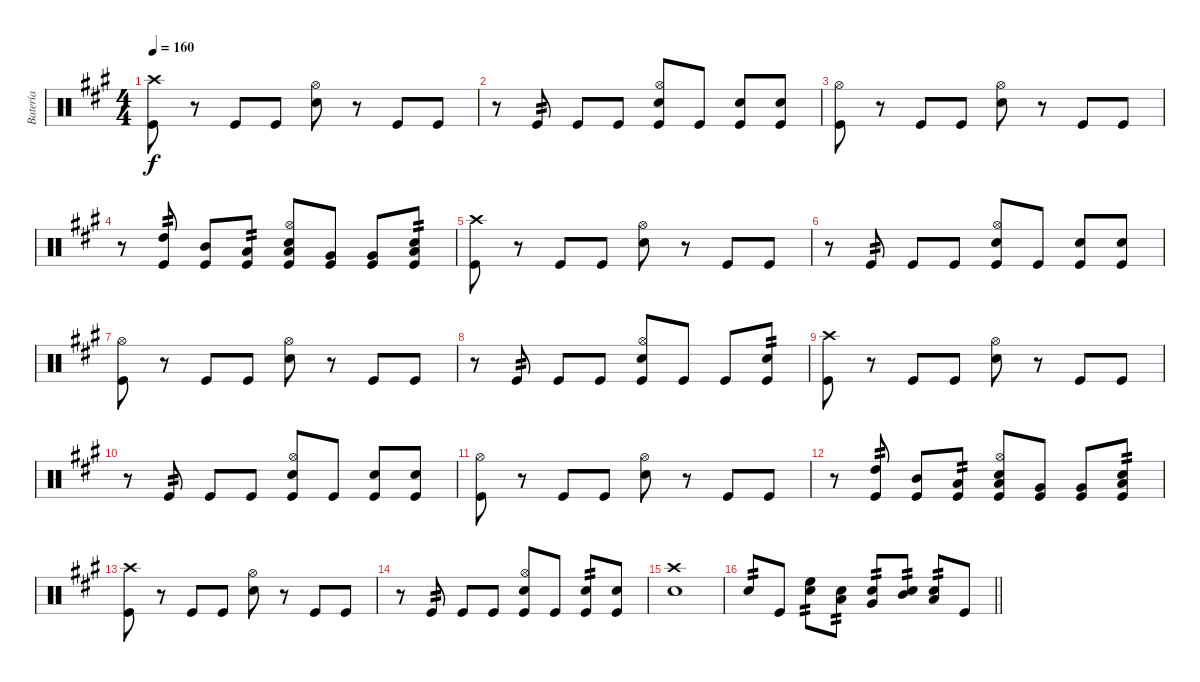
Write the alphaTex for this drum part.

\track ("Batería" "Batería") {instrument percussion}
\staff {score}
\articulation defaults
\ts (4 4)
\tempo 160
\clef neutral
\ks a
("Crash high (hit)" "Kick (hit)").8{dy f} r.8 "Kick (hit)".8 "Kick (hit)".8 ("Hi-Hat (open)" "Electric Snare (hit)").8 r.8 "Kick (hit)".8 "Kick (hit)".8 |
r.8 "Kick (hit)".8{tp 2} "Kick (hit)".8 "Kick (hit)".8 ("Hi-Hat (open)" "Electric Snare (hit)" "Kick (hit)").8 "Kick (hit)".8 ("Electric Snare (hit)" "Kick (hit)").8 ("Electric Snare (hit)" "Kick (hit)").8 |
("Hi-Hat (open)" "Kick (hit)").8 r.8 "Kick (hit)".8 "Kick (hit)".8 ("Hi-Hat (open)" "Electric Snare (hit)").8 r.8 "Kick (hit)".8 "Kick (hit)".8 |
r.8 ("High Tom (hit)" "Kick (hit)").8{tp 2} ("Mid Tom (hit)" "Kick (hit)").8 ("Low Tom (hit)" "Kick (hit)").8{tp 2} ("Hi-Hat (open)" "Low Floor Tom (hit)" "Electric Snare (hit)" "Kick (hit)").8 ("Very Low Tom (hit)" "Kick (hit)").8 ("Very Low Tom (hit)" "Kick (hit)").8 ("Low Tom (hit)" "Electric Snare (hit)" "Kick (hit)").8{tp 2} |
("Crash high (hit)" "Kick (hit)").8 r.8 "Kick (hit)".8 "Kick (hit)".8 ("Hi-Hat (open)" "Electric Snare (hit)").8 r.8 "Kick (hit)".8 "Kick (hit)".8 |
r.8 "Kick (hit)".8{tp 2} "Kick (hit)".8 "Kick (hit)".8 ("Hi-Hat (open)" "Electric Snare (hit)" "Kick (hit)").8 "Kick (hit)".8 ("Electric Snare (hit)" "Kick (hit)").8 ("Electric Snare (hit)" "Kick (hit)").8 |
("Hi-Hat (open)" "Kick (hit)").8 r.8 "Kick (hit)".8 "Kick (hit)".8 ("Hi-Hat (open)" "Electric Snare (hit)").8 r.8 "Kick (hit)".8 "Kick (hit)".8 |
r.8 "Kick (hit)".8{tp 2} "Kick (hit)".8 "Kick (hit)".8 ("Hi-Hat (open)" "Electric Snare (hit)" "Kick (hit)").8 "Kick (hit)".8 "Kick (hit)".8 ("Electric Snare (hit)" "Kick (hit)").8{tp 2} |
("Crash high (hit)" "Kick (hit)").8 r.8 "Kick (hit)".8 "Kick (hit)".8 ("Hi-Hat (open)" "Electric Snare (hit)").8 r.8 "Kick (hit)".8 "Kick (hit)".8 |
r.8 "Kick (hit)".8{tp 2} "Kick (hit)".8 "Kick (hit)".8 ("Hi-Hat (open)" "Electric Snare (hit)" "Kick (hit)").8 "Kick (hit)".8 ("Electric Snare (hit)" "Kick (hit)").8 ("Electric Snare (hit)" "Kick (hit)").8 |
("Hi-Hat (open)" "Kick (hit)").8 r.8 "Kick (hit)".8 "Kick (hit)".8 ("Hi-Hat (open)" "Electric Snare (hit)").8 r.8 "Kick (hit)".8 "Kick (hit)".8 |
r.8 ("High Tom (hit)" "Kick (hit)").8{tp 2} ("Mid Tom (hit)" "Kick (hit)").8 ("Low Tom (hit)" "Kick (hit)").8{tp 2} ("Hi-Hat (open)" "Low Floor Tom (hit)" "Electric Snare (hit)" "Kick (hit)").8 ("Very Low Tom (hit)" "Kick (hit)").8 ("Very Low Tom (hit)" "Kick (hit)").8 ("Low Tom (hit)" "Electric Snare (hit)" "Kick (hit)").8{tp 2} |
("Crash high (hit)" "Kick (hit)").8 r.8 "Kick (hit)".8 "Kick (hit)".8 ("Hi-Hat (open)" "Electric Snare (hit)").8 r.8 "Kick (hit)".8 "Kick (hit)".8 |
r.8 "Kick (hit)".8{tp 2} "Kick (hit)".8 "Kick (hit)".8 ("Hi-Hat (open)" "Electric Snare (hit)" "Kick (hit)").8 "Kick (hit)".8 ("Electric Snare (hit)" "Kick (hit)").8{tp 2} ("Electric Snare (hit)" "Kick (hit)").8 |
("Electric Snare (hit)" "Crash high (hit)").1 |
\barLineRight lightlight "Electric Snare (hit)".8{tp 2} "Kick (hit)".8
("High Floor Tom (hit)" "Electric Snare (hit)").8{tp 2} ("Low Tom (hit)" "Electric Snare (hit)").8{tp 2} ("Very Low Tom (hit)" "Electric Snare (hit)").8{tp 2} ("Mid Tom (hit)" "Electric Snare (hit)").8{tp 2} ("Low Tom (hit)" "Electric Snare (hit)").8{tp 2} "Kick (hit)".8
